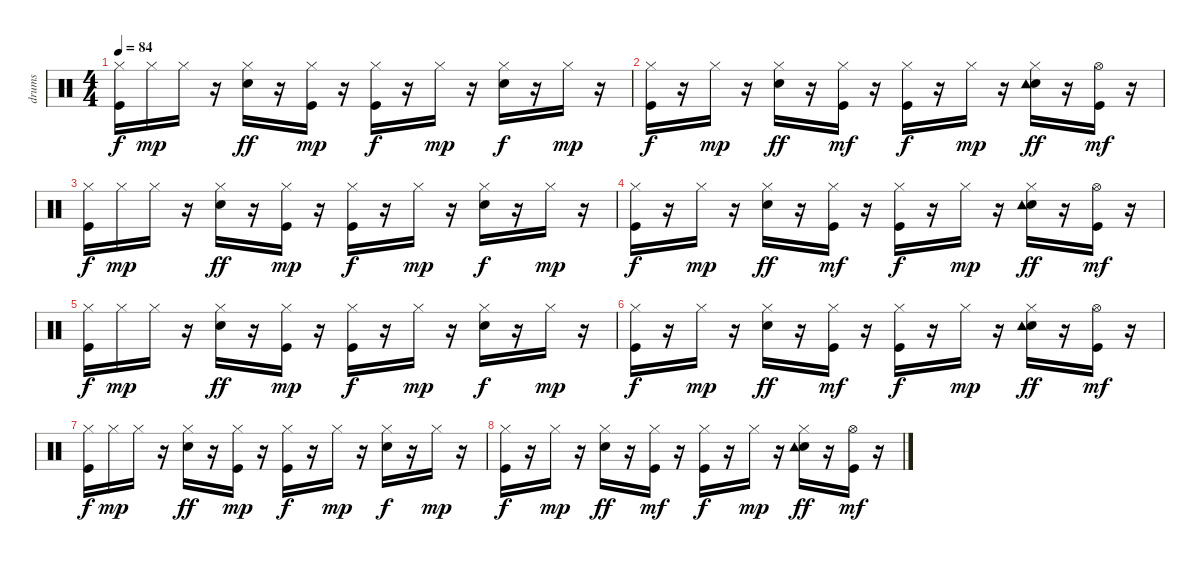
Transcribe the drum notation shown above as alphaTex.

\track ("drums" "drums") {instrument percussion}
\staff {score}
\articulation defaults
\ts (4 4)
\tempo 84
\clef neutral
\ks c
("Kick (hit)" "Hi-Hat (closed)").16{dy f} "Hi-Hat (closed)".16{dy mp} "Hi-Hat (closed)".16 r.16 ("Snare (hit) 2" "Hi-Hat (closed)").16{dy ff} r.16 ("Kick (hit)" "Hi-Hat (closed)").16{dy mp} r.16 ("Kick (hit)" "Hi-Hat (closed)").16{dy f} r.16 "Hi-Hat (closed)".16{dy mp} r.16 ("Snare (hit) 2" "Hi-Hat (closed)").16{dy f} r.16 "Hi-Hat (closed)".16{dy mp} r.16 |
("Kick (hit)" "Hi-Hat (closed)").16{dy f} r.16 "Hi-Hat (closed)".16{dy mp} r.16 ("Snare (hit) 2" "Hi-Hat (closed)").16{dy ff} r.16 ("Kick (hit)" "Hi-Hat (closed)").16{dy mf} r.16 ("Kick (hit)" "Hi-Hat (closed)").16{dy f} r.16 "Hi-Hat (closed)".16{dy mp} r.16 ("Snare (hit) 2" "Hi-Hat (closed)" "Tambourine (hit)").16{dy ff} r.16 ("Kick (hit)" "Hi-Hat (open)").16{dy mf} r.16 |
("Kick (hit)" "Hi-Hat (closed)").16{dy f} "Hi-Hat (closed)".16{dy mp} "Hi-Hat (closed)".16 r.16 ("Snare (hit) 2" "Hi-Hat (closed)").16{dy ff} r.16 ("Kick (hit)" "Hi-Hat (closed)").16{dy mp} r.16 ("Kick (hit)" "Hi-Hat (closed)").16{dy f} r.16 "Hi-Hat (closed)".16{dy mp} r.16 ("Snare (hit) 2" "Hi-Hat (closed)").16{dy f} r.16 "Hi-Hat (closed)".16{dy mp} r.16 |
("Kick (hit)" "Hi-Hat (closed)").16{dy f} r.16 "Hi-Hat (closed)".16{dy mp} r.16 ("Snare (hit) 2" "Hi-Hat (closed)").16{dy ff} r.16 ("Kick (hit)" "Hi-Hat (closed)").16{dy mf} r.16 ("Kick (hit)" "Hi-Hat (closed)").16{dy f} r.16 "Hi-Hat (closed)".16{dy mp} r.16 ("Snare (hit) 2" "Hi-Hat (closed)" "Tambourine (hit)").16{dy ff} r.16 ("Kick (hit)" "Hi-Hat (open)").16{dy mf} r.16 |
("Kick (hit)" "Hi-Hat (closed)").16{dy f} "Hi-Hat (closed)".16{dy mp} "Hi-Hat (closed)".16 r.16 ("Snare (hit) 2" "Hi-Hat (closed)").16{dy ff} r.16 ("Kick (hit)" "Hi-Hat (closed)").16{dy mp} r.16 ("Kick (hit)" "Hi-Hat (closed)").16{dy f} r.16 "Hi-Hat (closed)".16{dy mp} r.16 ("Snare (hit) 2" "Hi-Hat (closed)").16{dy f} r.16 "Hi-Hat (closed)".16{dy mp} r.16 |
("Kick (hit)" "Hi-Hat (closed)").16{dy f} r.16 "Hi-Hat (closed)".16{dy mp} r.16 ("Snare (hit) 2" "Hi-Hat (closed)").16{dy ff} r.16 ("Kick (hit)" "Hi-Hat (closed)").16{dy mf} r.16 ("Kick (hit)" "Hi-Hat (closed)").16{dy f} r.16 "Hi-Hat (closed)".16{dy mp} r.16 ("Snare (hit) 2" "Hi-Hat (closed)" "Tambourine (hit)").16{dy ff} r.16 ("Kick (hit)" "Hi-Hat (open)").16{dy mf} r.16 |
("Kick (hit)" "Hi-Hat (closed)").16{dy f} "Hi-Hat (closed)".16{dy mp} "Hi-Hat (closed)".16 r.16 ("Snare (hit) 2" "Hi-Hat (closed)").16{dy ff} r.16 ("Kick (hit)" "Hi-Hat (closed)").16{dy mp} r.16 ("Kick (hit)" "Hi-Hat (closed)").16{dy f} r.16 "Hi-Hat (closed)".16{dy mp} r.16 ("Snare (hit) 2" "Hi-Hat (closed)").16{dy f} r.16 "Hi-Hat (closed)".16{dy mp} r.16 |
("Kick (hit)" "Hi-Hat (closed)").16{dy f} r.16 "Hi-Hat (closed)".16{dy mp} r.16 ("Snare (hit) 2" "Hi-Hat (closed)").16{dy ff} r.16 ("Kick (hit)" "Hi-Hat (closed)").16{dy mf} r.16 ("Kick (hit)" "Hi-Hat (closed)").16{dy f} r.16 "Hi-Hat (closed)".16{dy mp} r.16 ("Snare (hit) 2" "Hi-Hat (closed)" "Tambourine (hit)").16{dy ff} r.16 ("Kick (hit)" "Hi-Hat (open)").16{dy mf} r.16
